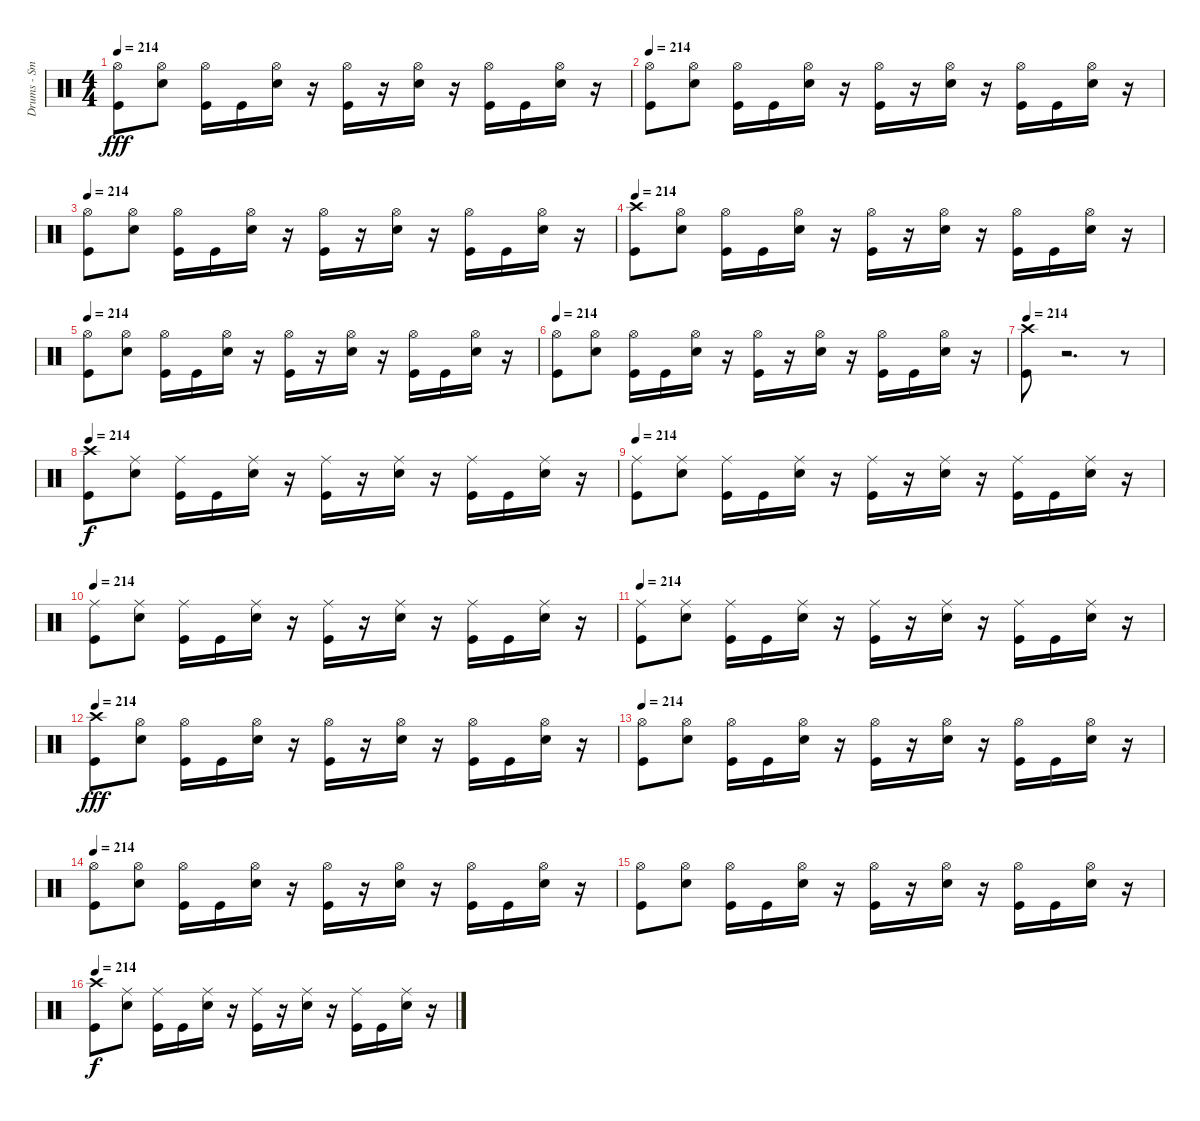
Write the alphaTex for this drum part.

\track ("Drums - Smelly" "Drums - Sm") {instrument percussion}
\staff {score}
\articulation defaults
\ts (4 4)
\tempo 214
\clef neutral
\ks c
("Kick (hit)" "Hi-Hat (open)").8{dy fff} ("Electric Snare (hit)" "Hi-Hat (open)").8 ("Kick (hit)" "Hi-Hat (open)").16 "Kick (hit)".16 ("Electric Snare (hit)" "Hi-Hat (open)").16 r.16 ("Kick (hit)" "Hi-Hat (open)").16 r.16 ("Electric Snare (hit)" "Hi-Hat (open)").16 r.16 ("Kick (hit)" "Hi-Hat (open)").16 "Kick (hit)".16 ("Electric Snare (hit)" "Hi-Hat (open)").16 r.16 |
\tempo 214
("Kick (hit)" "Hi-Hat (open)").8 ("Electric Snare (hit)" "Hi-Hat (open)").8 ("Kick (hit)" "Hi-Hat (open)").16 "Kick (hit)".16 ("Electric Snare (hit)" "Hi-Hat (open)").16 r.16 ("Kick (hit)" "Hi-Hat (open)").16 r.16 ("Electric Snare (hit)" "Hi-Hat (open)").16 r.16 ("Kick (hit)" "Hi-Hat (open)").16 "Kick (hit)".16 ("Electric Snare (hit)" "Hi-Hat (open)").16 r.16 |
\tempo 214
("Kick (hit)" "Hi-Hat (open)").8 ("Electric Snare (hit)" "Hi-Hat (open)").8 ("Kick (hit)" "Hi-Hat (open)").16 "Kick (hit)".16 ("Electric Snare (hit)" "Hi-Hat (open)").16 r.16 ("Kick (hit)" "Hi-Hat (open)").16 r.16 ("Electric Snare (hit)" "Hi-Hat (open)").16 r.16 ("Kick (hit)" "Hi-Hat (open)").16 "Kick (hit)".16 ("Electric Snare (hit)" "Hi-Hat (open)").16 r.16 |
\tempo 214
("Crash high (hit)" "Kick (hit)").8 ("Electric Snare (hit)" "Hi-Hat (open)").8 ("Kick (hit)" "Hi-Hat (open)").16 "Kick (hit)".16 ("Electric Snare (hit)" "Hi-Hat (open)").16 r.16 ("Kick (hit)" "Hi-Hat (open)").16 r.16 ("Electric Snare (hit)" "Hi-Hat (open)").16 r.16 ("Kick (hit)" "Hi-Hat (open)").16 "Kick (hit)".16 ("Electric Snare (hit)" "Hi-Hat (open)").16 r.16 |
\tempo 214
("Kick (hit)" "Hi-Hat (open)").8 ("Electric Snare (hit)" "Hi-Hat (open)").8 ("Kick (hit)" "Hi-Hat (open)").16 "Kick (hit)".16 ("Electric Snare (hit)" "Hi-Hat (open)").16 r.16 ("Kick (hit)" "Hi-Hat (open)").16 r.16 ("Electric Snare (hit)" "Hi-Hat (open)").16 r.16 ("Kick (hit)" "Hi-Hat (open)").16 "Kick (hit)".16 ("Electric Snare (hit)" "Hi-Hat (open)").16 r.16 |
\tempo 214
("Kick (hit)" "Hi-Hat (open)").8 ("Electric Snare (hit)" "Hi-Hat (open)").8 ("Kick (hit)" "Hi-Hat (open)").16 "Kick (hit)".16 ("Electric Snare (hit)" "Hi-Hat (open)").16 r.16 ("Kick (hit)" "Hi-Hat (open)").16 r.16 ("Electric Snare (hit)" "Hi-Hat (open)").16 r.16 ("Kick (hit)" "Hi-Hat (open)").16 "Kick (hit)".16 ("Electric Snare (hit)" "Hi-Hat (open)").16 r.16 |
\tempo 214
("Kick (hit)" "Crash high (hit)").8 r.2{d} r.8 |
\tempo 214
("Kick (hit)" "Crash high (hit)").8{dy f} ("Snare (hit) 2" "Ride (middle)").8 ("Kick (hit)" "Ride (middle)").16 "Kick (hit)".16 ("Ride (middle)" "Snare (hit) 2").16 r.16 ("Kick (hit)" "Ride (middle)").16 r.16 ("Ride (middle)" "Snare (hit) 2").16 r.16 ("Kick (hit)" "Ride (middle)").16 "Kick (hit)".16 ("Snare (hit) 2" "Ride (middle)").16 r.16 |
\tempo 214
("Kick (hit)" "Ride (middle)").8 ("Ride (middle)" "Snare (hit) 2").8 ("Ride (middle)" "Kick (hit)").16 "Kick (hit)".16 ("Snare (hit) 2" "Ride (middle)").16 r.16 ("Ride (middle)" "Kick (hit)").16 r.16 ("Ride (middle)" "Snare (hit) 2").16 r.16 ("Kick (hit)" "Ride (middle)").16 "Kick (hit)".16 ("Snare (hit) 2" "Ride (middle)").16 r.16 |
\tempo 214
("Ride (middle)" "Kick (hit)").8 ("Ride (middle)" "Snare (hit) 2").8 ("Kick (hit)" "Ride (middle)").16 "Kick (hit)".16 ("Snare (hit) 2" "Ride (middle)").16 r.16 ("Ride (middle)" "Kick (hit)").16 r.16 ("Ride (middle)" "Snare (hit) 2").16 r.16 ("Kick (hit)" "Ride (middle)").16 "Kick (hit)".16 ("Ride (middle)" "Snare (hit) 2").16 r.16 |
\tempo 214
("Kick (hit)" "Ride (middle)").8 ("Ride (middle)" "Snare (hit) 2").8 ("Kick (hit)" "Ride (middle)").16 "Kick (hit)".16 ("Snare (hit) 2" "Ride (middle)").16 r.16 ("Kick (hit)" "Ride (middle)").16 r.16 ("Ride (middle)" "Snare (hit) 2").16 r.16 ("Kick (hit)" "Ride (middle)").16 "Kick (hit)".16 ("Snare (hit) 2" "Ride (middle)").16 r.16 |
\tempo 214
("Crash high (hit)" "Kick (hit)").8{dy fff} ("Electric Snare (hit)" "Hi-Hat (open)").8 ("Kick (hit)" "Hi-Hat (open)").16 "Kick (hit)".16 ("Electric Snare (hit)" "Hi-Hat (open)").16 r.16 ("Kick (hit)" "Hi-Hat (open)").16 r.16 ("Electric Snare (hit)" "Hi-Hat (open)").16 r.16 ("Kick (hit)" "Hi-Hat (open)").16 "Kick (hit)".16 ("Electric Snare (hit)" "Hi-Hat (open)").16 r.16 |
\tempo 214
("Kick (hit)" "Hi-Hat (open)").8 ("Electric Snare (hit)" "Hi-Hat (open)").8 ("Kick (hit)" "Hi-Hat (open)").16 "Kick (hit)".16 ("Electric Snare (hit)" "Hi-Hat (open)").16 r.16 ("Kick (hit)" "Hi-Hat (open)").16 r.16 ("Electric Snare (hit)" "Hi-Hat (open)").16 r.16 ("Kick (hit)" "Hi-Hat (open)").16 "Kick (hit)".16 ("Electric Snare (hit)" "Hi-Hat (open)").16 r.16 |
\tempo 214
("Kick (hit)" "Hi-Hat (open)").8 ("Electric Snare (hit)" "Hi-Hat (open)").8 ("Kick (hit)" "Hi-Hat (open)").16 "Kick (hit)".16 ("Electric Snare (hit)" "Hi-Hat (open)").16 r.16 ("Kick (hit)" "Hi-Hat (open)").16 r.16 ("Electric Snare (hit)" "Hi-Hat (open)").16 r.16 ("Kick (hit)" "Hi-Hat (open)").16 "Kick (hit)".16 ("Electric Snare (hit)" "Hi-Hat (open)").16 r.16 |
("Kick (hit)" "Hi-Hat (open)").8 ("Electric Snare (hit)" "Hi-Hat (open)").8 ("Kick (hit)" "Hi-Hat (open)").16 "Kick (hit)".16 ("Electric Snare (hit)" "Hi-Hat (open)").16 r.16 ("Kick (hit)" "Hi-Hat (open)").16 r.16 ("Electric Snare (hit)" "Hi-Hat (open)").16 r.16 ("Kick (hit)" "Hi-Hat (open)").16 "Kick (hit)".16 ("Electric Snare (hit)" "Hi-Hat (open)").16 r.16 |
\tempo 214
("Crash high (hit)" "Kick (hit)").8{dy f} ("Snare (hit) 2" "Ride (middle)").8 ("Ride (middle)" "Kick (hit)").16 "Kick (hit)".16 ("Snare (hit) 2" "Ride (middle)").16 r.16 ("Kick (hit)" "Ride (middle)").16 r.16 ("Snare (hit) 2" "Ride (middle)").16 r.16 ("Kick (hit)" "Ride (middle)").16 "Kick (hit)".16 ("Snare (hit) 2" "Ride (middle)").16 r.16
